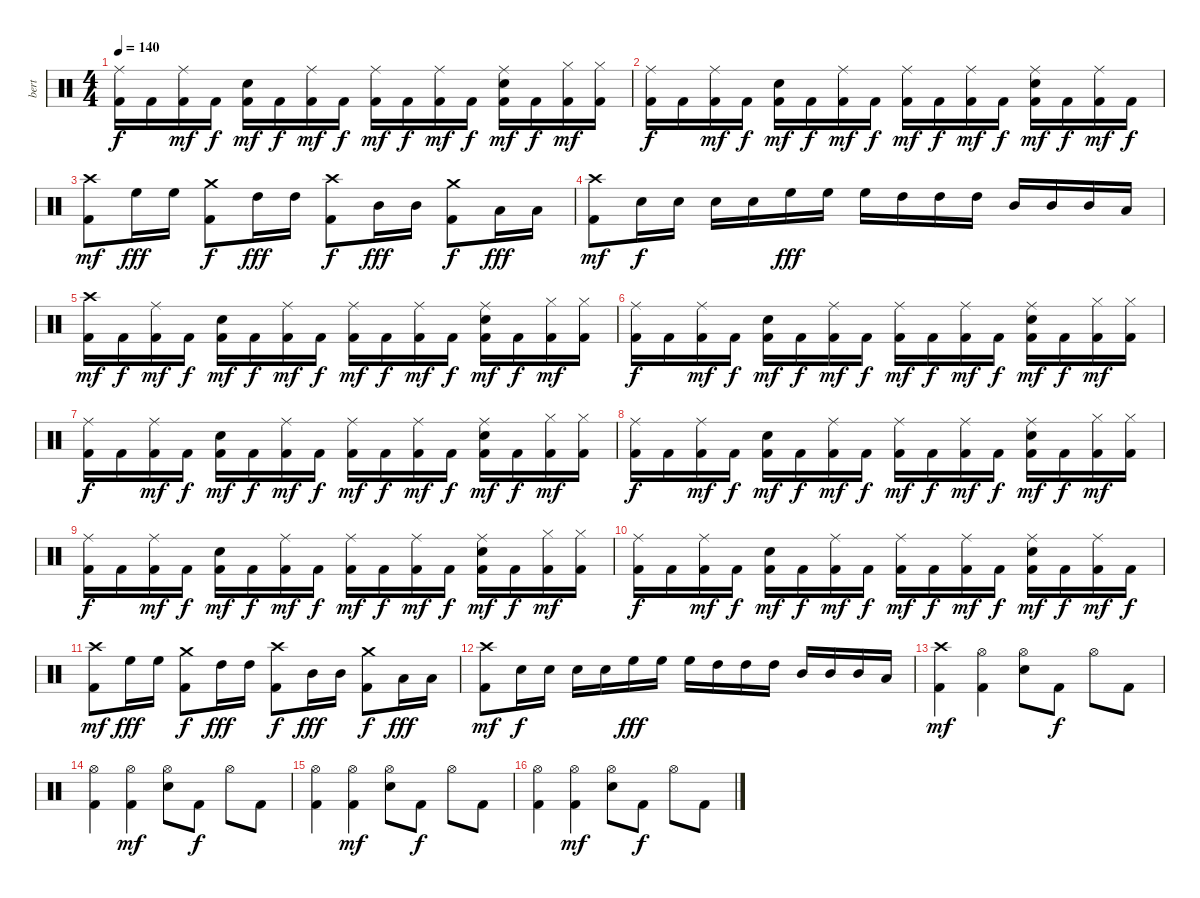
\track ("bert" "bert") {instrument percussion}
\staff {score}
\articulation defaults
\ts (4 4)
\tempo 140
\clef neutral
\ks c
("Ride (middle)" "Kick (hit) 2").16{dy f} "Kick (hit) 2".16 ("Ride (middle)" "Kick (hit) 2").16{dy mf} "Kick (hit) 2".16{dy f} ("Snare (hit) 2" "Kick (hit) 2").16{dy mf} "Kick (hit) 2".16{dy f} ("Ride (middle)" "Kick (hit) 2").16{dy mf} "Kick (hit) 2".16{dy f} ("Ride (middle)" "Kick (hit) 2").16{dy mf} "Kick (hit) 2".16{dy f} ("Ride (middle)" "Kick (hit) 2").16{dy mf} "Kick (hit) 2".16{dy f} ("Ride (middle)" "Snare (hit) 2" "Kick (hit) 2").16{dy mf} "Kick (hit) 2".16{dy f} ("Hi-Hat (closed)" "Kick (hit) 2").16{dy mf} ("Hi-Hat (closed)" "Kick (hit) 2").16 |
("Ride (middle)" "Kick (hit) 2").16{dy f} "Kick (hit) 2".16 ("Ride (middle)" "Kick (hit) 2").16{dy mf} "Kick (hit) 2".16{dy f} ("Snare (hit) 2" "Kick (hit) 2").16{dy mf} "Kick (hit) 2".16{dy f} ("Ride (middle)" "Kick (hit) 2").16{dy mf} "Kick (hit) 2".16{dy f} ("Ride (middle)" "Kick (hit) 2").16{dy mf} "Kick (hit) 2".16{dy f} ("Ride (middle)" "Kick (hit) 2").16{dy mf} "Kick (hit) 2".16{dy f} ("Ride (middle)" "Snare (hit) 2" "Kick (hit) 2").16{dy mf} "Kick (hit) 2".16{dy f} ("Ride (middle)" "Kick (hit) 2").16{dy mf} "Kick (hit) 2".16{dy f} |
("Crash high (hit)" "Kick (hit) 2").8{dy mf} "High Floor Tom (hit)".16{dy fff} "High Floor Tom (hit)".16 ("Crash medium (hit)" "Kick (hit) 2").8{dy f} "High Tom (hit)".16{dy fff} "High Tom (hit)".16 ("Crash high (hit)" "Kick (hit) 2").8{dy f} "Mid Tom (hit)".16{dy fff} "Mid Tom (hit)".16 ("Crash medium (hit)" "Kick (hit) 2").8{dy f} "Low Tom (hit)".16{dy fff} "Low Tom (hit)".16 |
("Crash high (hit)" "Kick (hit) 2").8{dy mf} "Snare (hit) 2".16{dy f} "Snare (hit) 2".16 "Snare (hit) 2".16 "Snare (hit) 2".16 "High Floor Tom (hit)".16{dy fff} "High Floor Tom (hit)".16 "High Floor Tom (hit)".16 "High Tom (hit)".16 "High Tom (hit)".16 "High Tom (hit)".16 "Mid Tom (hit)".16 "Mid Tom (hit)".16 "Mid Tom (hit)".16 "Low Tom (hit)".16 |
("Crash high (hit)" "Kick (hit) 2").16{dy mf} "Kick (hit) 2".16{dy f} ("Ride (middle)" "Kick (hit) 2").16{dy mf} "Kick (hit) 2".16{dy f} ("Snare (hit) 2" "Kick (hit) 2").16{dy mf} "Kick (hit) 2".16{dy f} ("Ride (middle)" "Kick (hit) 2").16{dy mf} "Kick (hit) 2".16{dy f} ("Ride (middle)" "Kick (hit) 2").16{dy mf} "Kick (hit) 2".16{dy f} ("Ride (middle)" "Kick (hit) 2").16{dy mf} "Kick (hit) 2".16{dy f} ("Ride (middle)" "Snare (hit) 2" "Kick (hit) 2").16{dy mf} "Kick (hit) 2".16{dy f} ("Hi-Hat (closed)" "Kick (hit) 2").16{dy mf} ("Hi-Hat (closed)" "Kick (hit) 2").16 |
("Ride (middle)" "Kick (hit) 2").16{dy f} "Kick (hit) 2".16 ("Ride (middle)" "Kick (hit) 2").16{dy mf} "Kick (hit) 2".16{dy f} ("Snare (hit) 2" "Kick (hit) 2").16{dy mf} "Kick (hit) 2".16{dy f} ("Ride (middle)" "Kick (hit) 2").16{dy mf} "Kick (hit) 2".16{dy f} ("Ride (middle)" "Kick (hit) 2").16{dy mf} "Kick (hit) 2".16{dy f} ("Ride (middle)" "Kick (hit) 2").16{dy mf} "Kick (hit) 2".16{dy f} ("Ride (middle)" "Snare (hit) 2" "Kick (hit) 2").16{dy mf} "Kick (hit) 2".16{dy f} ("Hi-Hat (closed)" "Kick (hit) 2").16{dy mf} ("Hi-Hat (closed)" "Kick (hit) 2").16 |
("Ride (middle)" "Kick (hit) 2").16{dy f} "Kick (hit) 2".16 ("Ride (middle)" "Kick (hit) 2").16{dy mf} "Kick (hit) 2".16{dy f} ("Snare (hit) 2" "Kick (hit) 2").16{dy mf} "Kick (hit) 2".16{dy f} ("Ride (middle)" "Kick (hit) 2").16{dy mf} "Kick (hit) 2".16{dy f} ("Ride (middle)" "Kick (hit) 2").16{dy mf} "Kick (hit) 2".16{dy f} ("Ride (middle)" "Kick (hit) 2").16{dy mf} "Kick (hit) 2".16{dy f} ("Ride (middle)" "Snare (hit) 2" "Kick (hit) 2").16{dy mf} "Kick (hit) 2".16{dy f} ("Hi-Hat (closed)" "Kick (hit) 2").16{dy mf} ("Hi-Hat (closed)" "Kick (hit) 2").16 |
("Ride (middle)" "Kick (hit) 2").16{dy f} "Kick (hit) 2".16 ("Ride (middle)" "Kick (hit) 2").16{dy mf} "Kick (hit) 2".16{dy f} ("Snare (hit) 2" "Kick (hit) 2").16{dy mf} "Kick (hit) 2".16{dy f} ("Ride (middle)" "Kick (hit) 2").16{dy mf} "Kick (hit) 2".16{dy f} ("Ride (middle)" "Kick (hit) 2").16{dy mf} "Kick (hit) 2".16{dy f} ("Ride (middle)" "Kick (hit) 2").16{dy mf} "Kick (hit) 2".16{dy f} ("Ride (middle)" "Snare (hit) 2" "Kick (hit) 2").16{dy mf} "Kick (hit) 2".16{dy f} ("Hi-Hat (closed)" "Kick (hit) 2").16{dy mf} ("Hi-Hat (closed)" "Kick (hit) 2").16 |
("Ride (middle)" "Kick (hit) 2").16{dy f} "Kick (hit) 2".16 ("Ride (middle)" "Kick (hit) 2").16{dy mf} "Kick (hit) 2".16{dy f} ("Snare (hit) 2" "Kick (hit) 2").16{dy mf} "Kick (hit) 2".16{dy f} ("Ride (middle)" "Kick (hit) 2").16{dy mf} "Kick (hit) 2".16{dy f} ("Ride (middle)" "Kick (hit) 2").16{dy mf} "Kick (hit) 2".16{dy f} ("Ride (middle)" "Kick (hit) 2").16{dy mf} "Kick (hit) 2".16{dy f} ("Ride (middle)" "Snare (hit) 2" "Kick (hit) 2").16{dy mf} "Kick (hit) 2".16{dy f} ("Hi-Hat (closed)" "Kick (hit) 2").16{dy mf} ("Hi-Hat (closed)" "Kick (hit) 2").16 |
("Ride (middle)" "Kick (hit) 2").16{dy f} "Kick (hit) 2".16 ("Ride (middle)" "Kick (hit) 2").16{dy mf} "Kick (hit) 2".16{dy f} ("Snare (hit) 2" "Kick (hit) 2").16{dy mf} "Kick (hit) 2".16{dy f} ("Ride (middle)" "Kick (hit) 2").16{dy mf} "Kick (hit) 2".16{dy f} ("Ride (middle)" "Kick (hit) 2").16{dy mf} "Kick (hit) 2".16{dy f} ("Ride (middle)" "Kick (hit) 2").16{dy mf} "Kick (hit) 2".16{dy f} ("Ride (middle)" "Snare (hit) 2" "Kick (hit) 2").16{dy mf} "Kick (hit) 2".16{dy f} ("Ride (middle)" "Kick (hit) 2").16{dy mf} "Kick (hit) 2".16{dy f} |
("Crash high (hit)" "Kick (hit) 2").8{dy mf} "High Floor Tom (hit)".16{dy fff} "High Floor Tom (hit)".16 ("Crash medium (hit)" "Kick (hit) 2").8{dy f} "High Tom (hit)".16{dy fff} "High Tom (hit)".16 ("Crash high (hit)" "Kick (hit) 2").8{dy f} "Mid Tom (hit)".16{dy fff} "Mid Tom (hit)".16 ("Crash medium (hit)" "Kick (hit) 2").8{dy f} "Low Tom (hit)".16{dy fff} "Low Tom (hit)".16 |
("Crash high (hit)" "Kick (hit) 2").8{dy mf} "Snare (hit) 2".16{dy f} "Snare (hit) 2".16 "Snare (hit) 2".16 "Snare (hit) 2".16 "High Floor Tom (hit)".16{dy fff} "High Floor Tom (hit)".16 "High Floor Tom (hit)".16 "High Tom (hit)".16 "High Tom (hit)".16 "High Tom (hit)".16 "Mid Tom (hit)".16 "Mid Tom (hit)".16 "Mid Tom (hit)".16 "Low Tom (hit)".16 |
("Crash high (hit)" "Kick (hit) 2").4{dy mf} ("Hi-Hat (open)" "Kick (hit) 2").4 ("Hi-Hat (open)" "Snare (hit) 2").8 "Kick (hit) 2".8{dy f} "Hi-Hat (open)".8 "Kick (hit) 2".8 |
("Hi-Hat (open)" "Kick (hit) 2").4 ("Hi-Hat (open)" "Kick (hit) 2").4{dy mf} ("Hi-Hat (open)" "Snare (hit) 2").8 "Kick (hit) 2".8{dy f} "Hi-Hat (open)".8 "Kick (hit) 2".8 |
("Hi-Hat (open)" "Kick (hit) 2").4 ("Hi-Hat (open)" "Kick (hit) 2").4{dy mf} ("Hi-Hat (open)" "Snare (hit) 2").8 "Kick (hit) 2".8{dy f} "Hi-Hat (open)".8 "Kick (hit) 2".8 |
("Hi-Hat (open)" "Kick (hit) 2").4 ("Hi-Hat (open)" "Kick (hit) 2").4{dy mf} ("Hi-Hat (open)" "Snare (hit) 2").8 "Kick (hit) 2".8{dy f} "Hi-Hat (open)".8 "Kick (hit) 2".8
